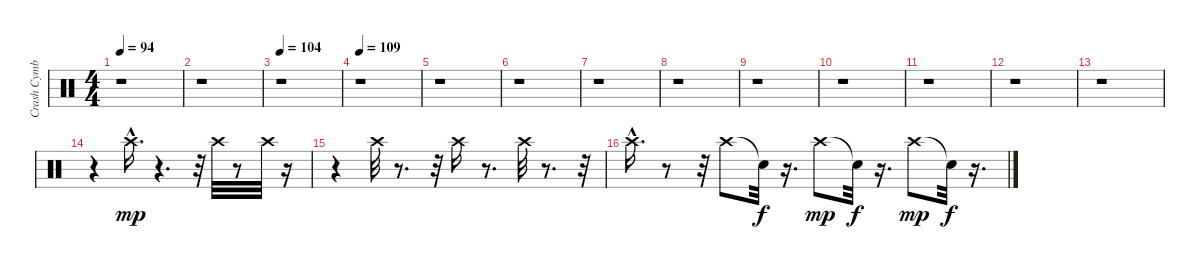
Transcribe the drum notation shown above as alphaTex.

\track ("Crash Cymbal    " "Crash Cymb") {instrument percussion}
\staff {score}
\articulation defaults
\ts (4 4)
\tempo 94
\clef neutral
\ks c
r.1{dy mp} |
r.1 |
\tempo 104
r.1 |
\tempo 109
r.1 |
r.1 |
r.1 |
r.1 |
r.1 |
r.1 |
r.1 |
r.1 |
r.1 |
r.1 |
r.4 "Crash high (hit)"{hac}.16{d} r.4{d} r.32 "Crash high (hit)".32 r.8 "Crash high (hit)".32 r.16 |
r.4 "Crash high (hit)".32 r.8{d} r.32 "Crash high (hit)".16 r.8{d} "Crash high (hit)".32 r.8{d} r.32 |
"Crash high (hit)"{hac}.16{d} r.8 r.32 "Crash high (hit)".8 "Snare (hit)"{t}.32{dy f} r.16{d} "Crash high (hit)".8{dy mp} "Snare (hit)"{t}.32{dy f} r.16{d} "Crash high (hit)".8{dy mp} "Snare (hit)"{t}.32{dy f} r.16{d}
